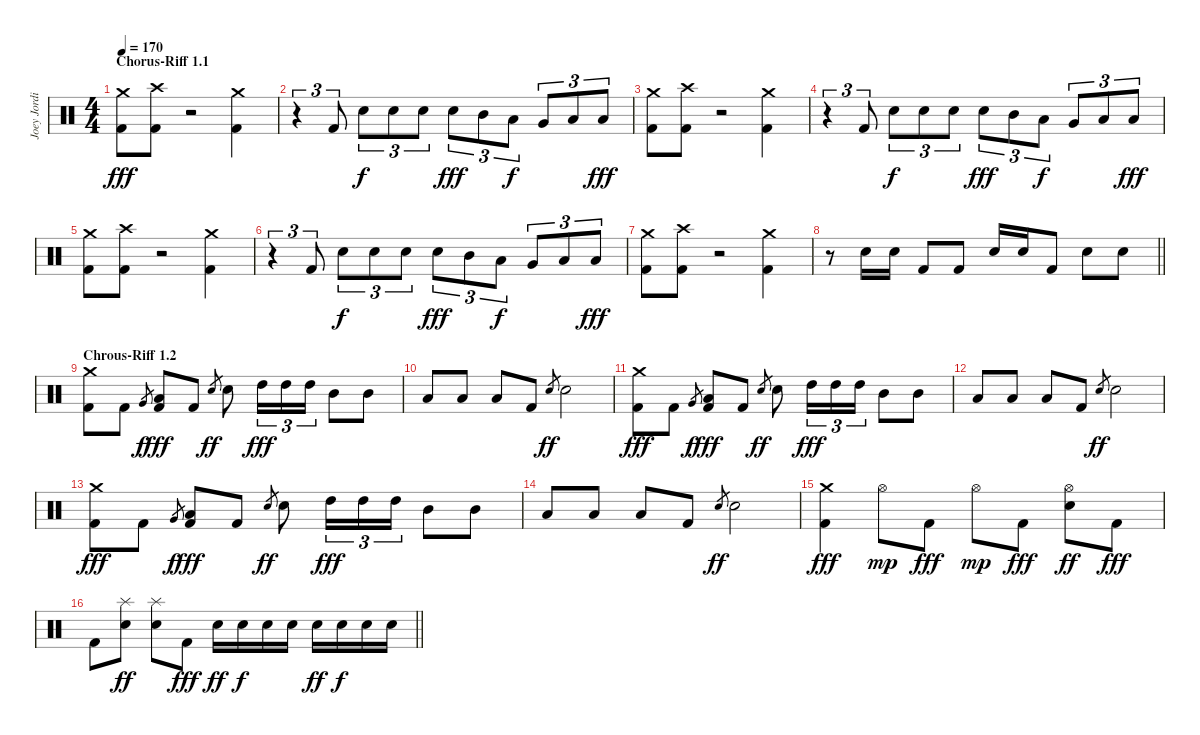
\track ("Joey Jordison" "Joey Jordi") {instrument percussion}
\staff {score}
\articulation defaults
\ts (4 4)
\section ("" "Chorus-Riff 1.1")
\tempo 170
\clef neutral
\ks c
("Crash medium (hit)" "Kick (hit) 2").8{dy fff} ("Crash high (hit)" "Kick (hit) 2").8 r.2 ("Crash medium (hit)" "Kick (hit) 2").4 |
r.4{tu (3 2)} "Kick (hit) 2".8{tu (3 2)} "Electric Snare (hit)".8{tu (3 2) dy f} "Electric Snare (hit)".8{tu (3 2)} "Electric Snare (hit)".8{tu (3 2)} "Electric Snare (hit)".8{tu (3 2) dy fff} "Mid Tom (hit)".8{tu (3 2)} "Low Tom (hit)".8{tu (3 2) dy f} "Very Low Tom (hit)".8{tu (3 2)} "Low Floor Tom (hit)".8{tu (3 2)} "Low Floor Tom (hit)".8{tu (3 2) dy fff} |
("Crash medium (hit)" "Kick (hit) 2").8 ("Crash high (hit)" "Kick (hit) 2").8 r.2 ("Crash medium (hit)" "Kick (hit) 2").4 |
r.4{tu (3 2)} "Kick (hit) 2".8{tu (3 2)} "Electric Snare (hit)".8{tu (3 2) dy f} "Electric Snare (hit)".8{tu (3 2)} "Electric Snare (hit)".8{tu (3 2)} "Electric Snare (hit)".8{tu (3 2) dy fff} "Mid Tom (hit)".8{tu (3 2)} "Low Tom (hit)".8{tu (3 2) dy f} "Very Low Tom (hit)".8{tu (3 2)} "Low Floor Tom (hit)".8{tu (3 2)} "Low Floor Tom (hit)".8{tu (3 2) dy fff} |
("Crash medium (hit)" "Kick (hit) 2").8 ("Crash high (hit)" "Kick (hit) 2").8 r.2 ("Crash medium (hit)" "Kick (hit) 2").4 |
r.4{tu (3 2)} "Kick (hit) 2".8{tu (3 2)} "Electric Snare (hit)".8{tu (3 2) dy f} "Electric Snare (hit)".8{tu (3 2)} "Electric Snare (hit)".8{tu (3 2)} "Electric Snare (hit)".8{tu (3 2) dy fff} "Mid Tom (hit)".8{tu (3 2)} "Low Tom (hit)".8{tu (3 2) dy f} "Very Low Tom (hit)".8{tu (3 2)} "Low Floor Tom (hit)".8{tu (3 2)} "Low Floor Tom (hit)".8{tu (3 2) dy fff} |
("Crash medium (hit)" "Kick (hit) 2").8 ("Crash high (hit)" "Kick (hit) 2").8 r.2 ("Crash medium (hit)" "Kick (hit) 2").4 |
\barLineRight lightlight
r.8 "Electric Snare (hit)".16 "Electric Snare (hit)".16 "Kick (hit) 2".8 "Kick (hit) 2".8 "Electric Snare (hit)".16 "Electric Snare (hit)".16 "Kick (hit) 2".8 "Electric Snare (hit)".8 "Electric Snare (hit)".8 |
\section ("" "Chrous-Riff 1.2")
("Crash medium (hit)" "Kick (hit) 2").8 "Kick (hit) 2".8 "Very Low Tom (hit)".8{gr dy f} ("Low Floor Tom (hit)" "Kick (hit) 2").8{dy fff} "Kick (hit) 2".8 "Electric Snare (hit)".8{gr dy ff} "Electric Snare (hit)".8 "High Tom (hit)".16{tu (3 2) dy fff} "High Tom (hit)".16{tu (3 2)} "High Tom (hit)".16{tu (3 2)} "Mid Tom (hit)".8 "Mid Tom (hit)".8 |
"Low Tom (hit)".8 "Low Tom (hit)".8 "Low Tom (hit)".8 "Kick (hit) 2".8 "Electric Snare (hit)".8{gr dy ff} "Electric Snare (hit)".2 |
("Crash medium (hit)" "Kick (hit) 2").8{dy fff} "Kick (hit) 2".8 "Very Low Tom (hit)".8{gr dy f} ("Low Floor Tom (hit)" "Kick (hit) 2").8{dy fff} "Kick (hit) 2".8 "Electric Snare (hit)".8{gr dy ff} "Electric Snare (hit)".8 "High Tom (hit)".16{tu (3 2) dy fff} "High Tom (hit)".16{tu (3 2)} "High Tom (hit)".16{tu (3 2)} "Mid Tom (hit)".8 "Mid Tom (hit)".8 |
"Low Tom (hit)".8 "Low Tom (hit)".8 "Low Tom (hit)".8 "Kick (hit) 2".8 "Electric Snare (hit)".8{gr dy ff} "Electric Snare (hit)".2 |
("Crash medium (hit)" "Kick (hit) 2").8{dy fff} "Kick (hit) 2".8 "Very Low Tom (hit)".8{gr dy f} ("Low Floor Tom (hit)" "Kick (hit) 2").8{dy fff} "Kick (hit) 2".8 "Electric Snare (hit)".8{gr dy ff} "Electric Snare (hit)".8 "High Tom (hit)".16{tu (3 2) dy fff} "High Tom (hit)".16{tu (3 2)} "High Tom (hit)".16{tu (3 2)} "Mid Tom (hit)".8 "Mid Tom (hit)".8 |
"Low Tom (hit)".8 "Low Tom (hit)".8 "Low Tom (hit)".8 "Kick (hit) 2".8 "Electric Snare (hit)".8{gr dy ff} "Electric Snare (hit)".2 |
("Crash medium (hit)" "Kick (hit) 2").4{dy fff} "Hi-Hat (open)".8{dy mp} "Kick (hit) 2".8{dy fff} "Hi-Hat (open)".8{dy mp} "Kick (hit) 2".8{dy fff} ("Hi-Hat (open)" "Electric Snare (hit)").8{dy ff} "Kick (hit) 2".8{dy fff} |
\barLineRight lightlight "Kick (hit) 2".8
("Splash (hit)" "Electric Snare (hit)").8{dy ff} ("Splash (hit)" "Electric Snare (hit)").8 "Kick (hit) 2".8{dy fff} "Electric Snare (hit)".16{dy ff} "Electric Snare (hit)".16{dy f} "Electric Snare (hit)".16 "Electric Snare (hit)".16 "Electric Snare (hit)".16{dy ff} "Electric Snare (hit)".16{dy f} "Electric Snare (hit)".16 "Electric Snare (hit)".16
